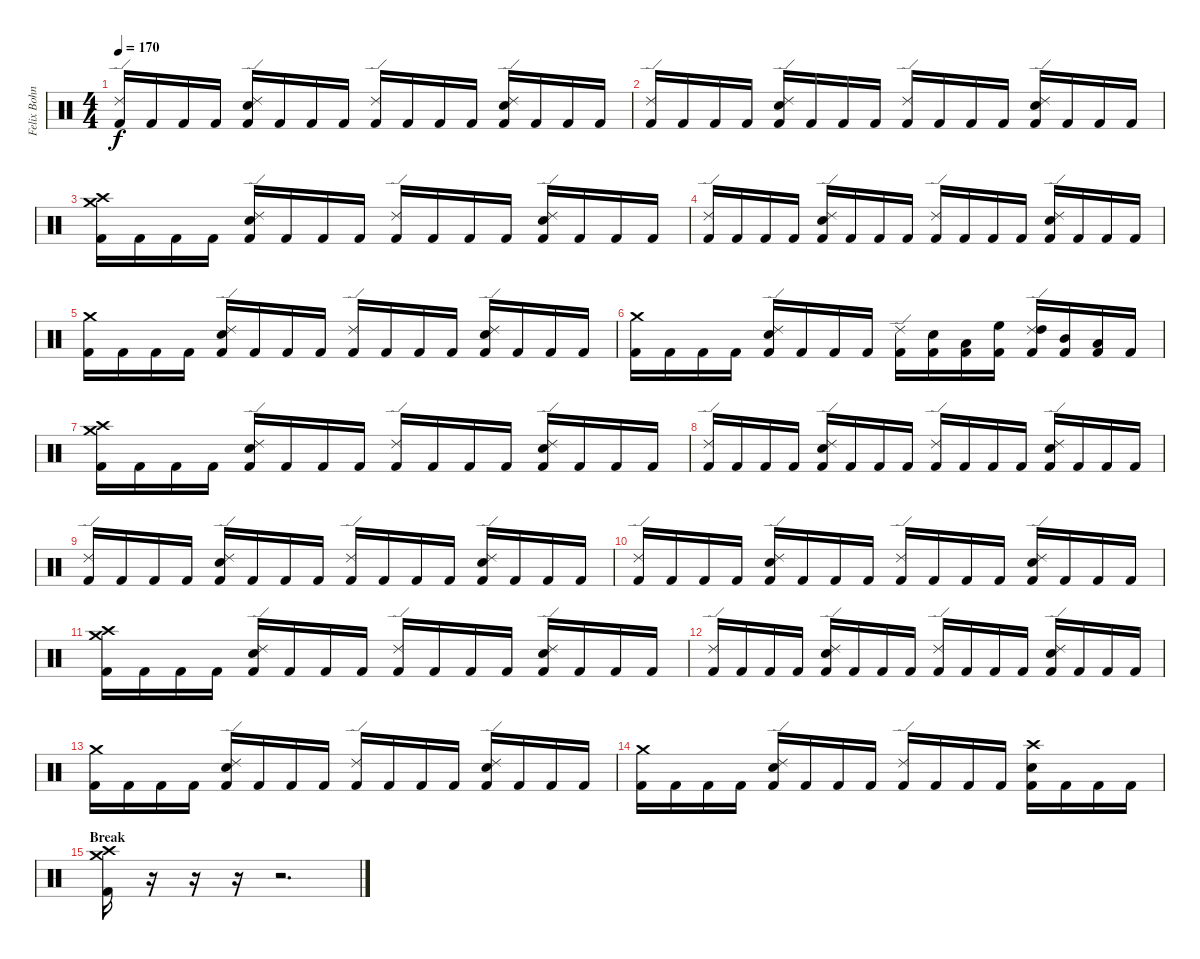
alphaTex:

\track ("Felix Bohnke" "Felix Bohn") {instrument percussion}
\staff {score}
\articulation defaults
\ts (4 4)
\tempo 170
\clef neutral
\ks c
("Ride (edge) 2" "Kick (hit) 2").16{dy f} "Kick (hit) 2".16 "Kick (hit) 2".16 "Kick (hit) 2".16 ("Ride (edge) 2" "Snare (hit) 2" "Kick (hit) 2").16 "Kick (hit) 2".16 "Kick (hit) 2".16 "Kick (hit) 2".16 ("Ride (edge) 2" "Kick (hit) 2").16 "Kick (hit) 2".16 "Kick (hit) 2".16 "Kick (hit) 2".16 ("Ride (edge) 2" "Snare (hit) 2" "Kick (hit) 2").16 "Kick (hit) 2".16 "Kick (hit) 2".16 "Kick (hit) 2".16 |
("Ride (edge) 2" "Kick (hit) 2").16 "Kick (hit) 2".16 "Kick (hit) 2".16 "Kick (hit) 2".16 ("Ride (edge) 2" "Snare (hit) 2" "Kick (hit) 2").16 "Kick (hit) 2".16 "Kick (hit) 2".16 "Kick (hit) 2".16 ("Ride (edge) 2" "Kick (hit) 2").16 "Kick (hit) 2".16 "Kick (hit) 2".16 "Kick (hit) 2".16 ("Ride (edge) 2" "Snare (hit) 2" "Kick (hit) 2").16 "Kick (hit) 2".16 "Kick (hit) 2".16 "Kick (hit) 2".16 |
("Crash high (hit)" "Crash medium (hit)" "Kick (hit) 2").16 "Kick (hit) 2".16 "Kick (hit) 2".16 "Kick (hit) 2".16 ("Ride (edge) 2" "Snare (hit) 2" "Kick (hit) 2").16 "Kick (hit) 2".16 "Kick (hit) 2".16 "Kick (hit) 2".16 ("Ride (edge) 2" "Kick (hit) 2").16 "Kick (hit) 2".16 "Kick (hit) 2".16 "Kick (hit) 2".16 ("Ride (edge) 2" "Snare (hit) 2" "Kick (hit) 2").16 "Kick (hit) 2".16 "Kick (hit) 2".16 "Kick (hit) 2".16 |
("Ride (edge) 2" "Kick (hit) 2").16 "Kick (hit) 2".16 "Kick (hit) 2".16 "Kick (hit) 2".16 ("Ride (edge) 2" "Snare (hit) 2" "Kick (hit) 2").16 "Kick (hit) 2".16 "Kick (hit) 2".16 "Kick (hit) 2".16 ("Ride (edge) 2" "Kick (hit) 2").16 "Kick (hit) 2".16 "Kick (hit) 2".16 "Kick (hit) 2".16 ("Ride (edge) 2" "Snare (hit) 2" "Kick (hit) 2").16 "Kick (hit) 2".16 "Kick (hit) 2".16 "Kick (hit) 2".16 |
("Crash medium (hit)" "Kick (hit) 2").16 "Kick (hit) 2".16 "Kick (hit) 2".16 "Kick (hit) 2".16 ("Ride (edge) 2" "Snare (hit) 2" "Kick (hit) 2").16 "Kick (hit) 2".16 "Kick (hit) 2".16 "Kick (hit) 2".16 ("Ride (edge) 2" "Kick (hit) 2").16 "Kick (hit) 2".16 "Kick (hit) 2".16 "Kick (hit) 2".16 ("Ride (edge) 2" "Snare (hit) 2" "Kick (hit) 2").16 "Kick (hit) 2".16 "Kick (hit) 2".16 "Kick (hit) 2".16 |
("Crash medium (hit)" "Kick (hit) 2").16 "Kick (hit) 2".16 "Kick (hit) 2".16 "Kick (hit) 2".16 ("Ride (edge) 2" "Snare (hit) 2" "Kick (hit) 2").16 "Kick (hit) 2".16 "Kick (hit) 2".16 "Kick (hit) 2".16 ("Ride (edge) 2" "Kick (hit) 2").16 ("Snare (hit) 2" "Kick (hit) 2").16 ("Low Tom (hit)" "Kick (hit) 2").16 ("High Floor Tom (hit)" "Kick (hit) 2").16 ("Ride (edge) 2" "High Tom (hit)" "Kick (hit) 2").16 ("Mid Tom (hit)" "Kick (hit) 2").16 ("Low Tom (hit)" "Kick (hit) 2").16 "Kick (hit) 2".16 |
("Crash high (hit)" "Crash medium (hit)" "Kick (hit) 2").16 "Kick (hit) 2".16 "Kick (hit) 2".16 "Kick (hit) 2".16 ("Ride (edge) 2" "Snare (hit) 2" "Kick (hit) 2").16 "Kick (hit) 2".16 "Kick (hit) 2".16 "Kick (hit) 2".16 ("Ride (edge) 2" "Kick (hit) 2").16 "Kick (hit) 2".16 "Kick (hit) 2".16 "Kick (hit) 2".16 ("Ride (edge) 2" "Snare (hit) 2" "Kick (hit) 2").16 "Kick (hit) 2".16 "Kick (hit) 2".16 "Kick (hit) 2".16 |
("Ride (edge) 2" "Kick (hit) 2").16 "Kick (hit) 2".16 "Kick (hit) 2".16 "Kick (hit) 2".16 ("Ride (edge) 2" "Snare (hit) 2" "Kick (hit) 2").16 "Kick (hit) 2".16 "Kick (hit) 2".16 "Kick (hit) 2".16 ("Ride (edge) 2" "Kick (hit) 2").16 "Kick (hit) 2".16 "Kick (hit) 2".16 "Kick (hit) 2".16 ("Ride (edge) 2" "Snare (hit) 2" "Kick (hit) 2").16 "Kick (hit) 2".16 "Kick (hit) 2".16 "Kick (hit) 2".16 |
("Ride (edge) 2" "Kick (hit) 2").16 "Kick (hit) 2".16 "Kick (hit) 2".16 "Kick (hit) 2".16 ("Ride (edge) 2" "Snare (hit) 2" "Kick (hit) 2").16 "Kick (hit) 2".16 "Kick (hit) 2".16 "Kick (hit) 2".16 ("Ride (edge) 2" "Kick (hit) 2").16 "Kick (hit) 2".16 "Kick (hit) 2".16 "Kick (hit) 2".16 ("Ride (edge) 2" "Snare (hit) 2" "Kick (hit) 2").16 "Kick (hit) 2".16 "Kick (hit) 2".16 "Kick (hit) 2".16 |
("Ride (edge) 2" "Kick (hit) 2").16 "Kick (hit) 2".16 "Kick (hit) 2".16 "Kick (hit) 2".16 ("Ride (edge) 2" "Snare (hit) 2" "Kick (hit) 2").16 "Kick (hit) 2".16 "Kick (hit) 2".16 "Kick (hit) 2".16 ("Ride (edge) 2" "Kick (hit) 2").16 "Kick (hit) 2".16 "Kick (hit) 2".16 "Kick (hit) 2".16 ("Ride (edge) 2" "Snare (hit) 2" "Kick (hit) 2").16 "Kick (hit) 2".16 "Kick (hit) 2".16 "Kick (hit) 2".16 |
("Crash high (hit)" "Crash medium (hit)" "Kick (hit) 2").16 "Kick (hit) 2".16 "Kick (hit) 2".16 "Kick (hit) 2".16 ("Ride (edge) 2" "Snare (hit) 2" "Kick (hit) 2").16 "Kick (hit) 2".16 "Kick (hit) 2".16 "Kick (hit) 2".16 ("Ride (edge) 2" "Kick (hit) 2").16 "Kick (hit) 2".16 "Kick (hit) 2".16 "Kick (hit) 2".16 ("Ride (edge) 2" "Snare (hit) 2" "Kick (hit) 2").16 "Kick (hit) 2".16 "Kick (hit) 2".16 "Kick (hit) 2".16 |
("Ride (edge) 2" "Kick (hit) 2").16 "Kick (hit) 2".16 "Kick (hit) 2".16 "Kick (hit) 2".16 ("Ride (edge) 2" "Snare (hit) 2" "Kick (hit) 2").16 "Kick (hit) 2".16 "Kick (hit) 2".16 "Kick (hit) 2".16 ("Ride (edge) 2" "Kick (hit) 2").16 "Kick (hit) 2".16 "Kick (hit) 2".16 "Kick (hit) 2".16 ("Ride (edge) 2" "Snare (hit) 2" "Kick (hit) 2").16 "Kick (hit) 2".16 "Kick (hit) 2".16 "Kick (hit) 2".16 |
("Crash medium (hit)" "Kick (hit) 2").16 "Kick (hit) 2".16 "Kick (hit) 2".16 "Kick (hit) 2".16 ("Ride (edge) 2" "Snare (hit) 2" "Kick (hit) 2").16 "Kick (hit) 2".16 "Kick (hit) 2".16 "Kick (hit) 2".16 ("Ride (edge) 2" "Kick (hit) 2").16 "Kick (hit) 2".16 "Kick (hit) 2".16 "Kick (hit) 2".16 ("Ride (edge) 2" "Snare (hit) 2" "Kick (hit) 2").16 "Kick (hit) 2".16 "Kick (hit) 2".16 "Kick (hit) 2".16 |
("Crash medium (hit)" "Kick (hit) 2").16 "Kick (hit) 2".16 "Kick (hit) 2".16 "Kick (hit) 2".16 ("Ride (edge) 2" "Snare (hit) 2" "Kick (hit) 2").16 "Kick (hit) 2".16 "Kick (hit) 2".16 "Kick (hit) 2".16 ("Ride (edge) 2" "Kick (hit) 2").16 "Kick (hit) 2".16 "Kick (hit) 2".16 "Kick (hit) 2".16 ("Crash high (hit)" "Snare (hit) 2" "Kick (hit) 2").16 "Kick (hit) 2".16 "Kick (hit) 2".16 "Kick (hit) 2".16 |
\section ("" "Break")
("Crash medium (hit)" "Crash high (hit)" "Kick (hit) 2").16 r.16 r.16 r.16 r.2{d}
